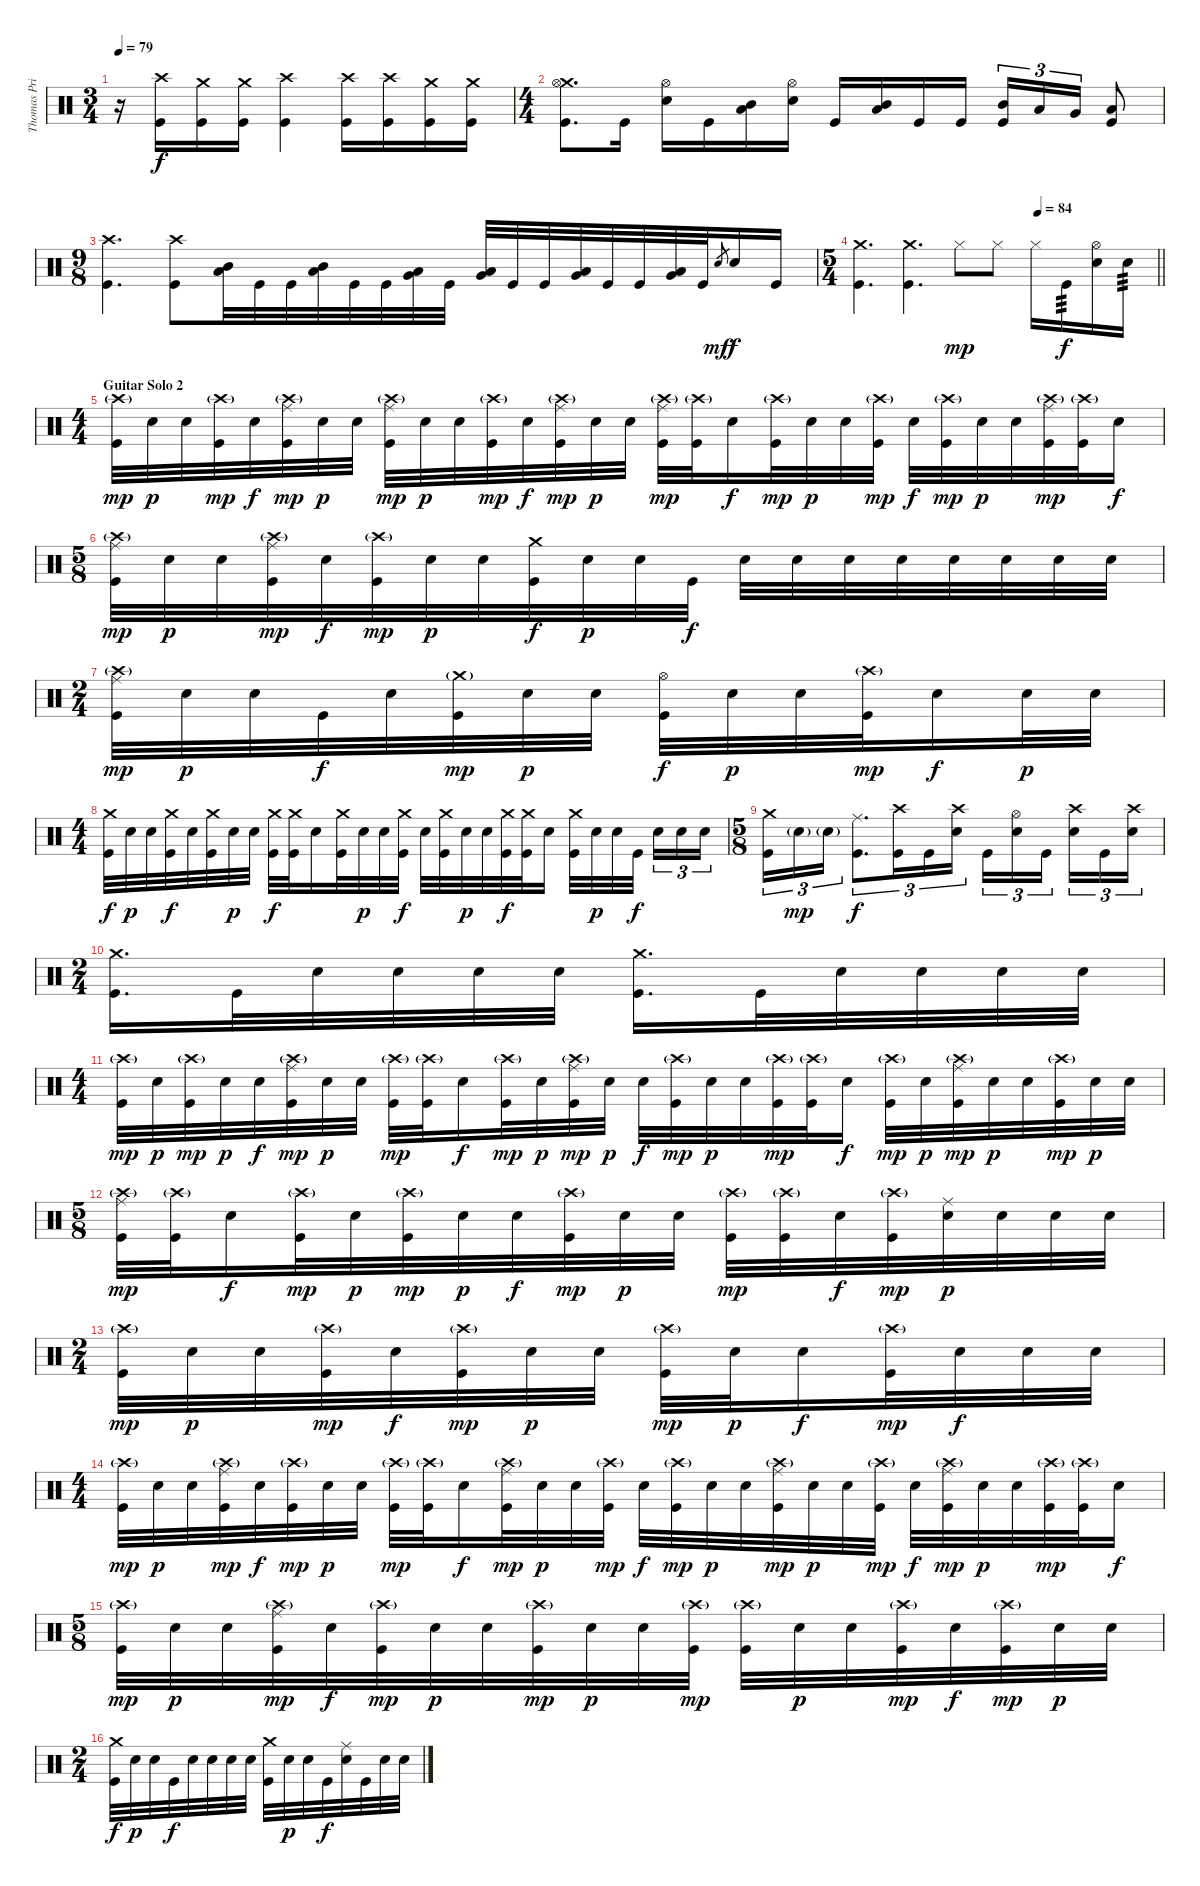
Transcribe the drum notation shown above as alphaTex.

\track ("Thomas Pridgen" "Thomas Pri") {instrument percussion}
\staff {score}
\articulation defaults
\ts (3 4)
\tempo 79
\clef neutral
\ks c
r.16{dy f} ("Crash high (hit)" "Kick (hit)").16 ("Crash medium (hit)" "Kick (hit)").16 ("Crash medium (hit)" "Kick (hit)").16 ("Crash high (hit)" "Kick (hit)").4 ("Crash high (hit)" "Kick (hit)").16 ("Crash high (hit)" "Kick (hit)").16 ("Crash medium (hit)" "Kick (hit)").16 ("Crash medium (hit)" "Kick (hit)").16 |
\ts (4 4)
("Crash medium (hit)" "Hi-Hat (open)" "Kick (hit)").8{d} "Kick (hit)".16 ("Hi-Hat (open)" "Snare (hit) 2").16 "Kick (hit)".16 ("Mid Tom (hit)" "Low Tom (hit)").16 ("Hi-Hat (open)" "Snare (hit) 2").16 "Kick (hit)".16 ("Mid Tom (hit)" "Low Tom (hit)").16 "Kick (hit)".16 "Kick (hit)".16 ("Mid Tom (hit)" "Kick (hit)").16{tu (3 2)} "Low Tom (hit)".16{tu (3 2)} "Very Low Tom (hit)".16{tu (3 2)} ("Low Floor Tom (hit)" "Kick (hit)").8 |
\ts (9 8)
("Crash high (hit)" "Kick (hit)").4{d} ("Crash high (hit)" "Kick (hit)").8 ("Mid Tom (hit)" "Low Tom (hit)").32 "Kick (hit)".32 "Kick (hit)".32 ("Mid Tom (hit)" "Low Tom (hit)").32 "Kick (hit)".32 "Kick (hit)".32 ("Low Tom (hit)" "Very Low Tom (hit)").32 "Kick (hit)".32 ("Low Tom (hit)" "Very Low Tom (hit)").32 "Kick (hit)".32 "Kick (hit)".32 ("Very Low Tom (hit)" "Low Floor Tom (hit)").32 "Kick (hit)".32 "Kick (hit)".32 ("Very Low Tom (hit)" "Low Floor Tom (hit)").32 "Kick (hit)".32 "Snare (hit) 2".8{gr dy mf} "Snare (hit) 2".16{dy f} "Kick (hit)".16 |
\ts (5 4)
\tempo (84 0.6)
\barLineRight lightlight
("Crash medium (hit)" "Kick (hit)").4{d} ("Crash medium (hit)" "Kick (hit)").4{d} "Hi-Hat (closed)".8{dy mp} "Hi-Hat (closed)".8 "Hi-Hat (closed)".16 "Kick (hit)".16{tp 3 dy f} ("Hi-Hat (open)" "Snare (hit) 2").16 "Snare (hit) 2".16{tp 3} |
\ts (4 4)
\section ("" "Guitar Solo 2")
("Crash high (hit)"{g} "Kick (hit)").32{dy mp} "Snare (hit) 2".32{dy p} "Snare (hit) 2".32 ("Crash high (hit)"{g} "Kick (hit)").32{dy mp} "Snare (hit) 2".32{dy f} ("Crash high (hit)"{g} "Ride (middle)" "Kick (hit)").32{dy mp} "Snare (hit) 2".32{dy p} "Snare (hit) 2".32 ("Crash high (hit)"{g} "Ride (middle)" "Kick (hit)").32{dy mp} "Snare (hit) 2".32{dy p} "Snare (hit) 2".32 ("Crash high (hit)"{g} "Kick (hit)").32{dy mp} "Snare (hit) 2".32{dy f} ("Crash high (hit)"{g} "Ride (middle)" "Kick (hit)").32{dy mp} "Snare (hit) 2".32{dy p} "Snare (hit) 2".32 ("Crash high (hit)"{g} "Ride (middle)" "Kick (hit)").32{dy mp} ("Crash high (hit)"{g} "Kick (hit)").32 "Snare (hit) 2".16{dy f} ("Crash high (hit)"{g} "Kick (hit)").32{dy mp} "Snare (hit) 2".32{dy p} "Snare (hit) 2".32 ("Crash high (hit)"{g} "Kick (hit)").32{dy mp} "Snare (hit) 2".32{dy f} ("Crash high (hit)"{g} "Kick (hit)").32{dy mp} "Snare (hit) 2".32{dy p} "Snare (hit) 2".32 ("Crash high (hit)"{g} "Ride (middle)" "Kick (hit)").32{dy mp} ("Crash high (hit)"{g} "Kick (hit)").32 "Snare (hit) 2".16{dy f} |
\ts (5 8)
("Crash high (hit)"{g} "Ride (middle)" "Kick (hit)").32{dy mp} "Snare (hit) 2".32{dy p} "Snare (hit) 2".32 ("Crash high (hit)"{g} "Ride (middle)" "Kick (hit)").32{dy mp} "Snare (hit) 2".32{dy f} ("Crash high (hit)"{g} "Kick (hit)").32{dy mp} "Snare (hit) 2".32{dy p} "Snare (hit) 2".32 ("Crash medium (hit)" "Kick (hit)").32{dy f} "Snare (hit) 2".32{dy p} "Snare (hit) 2".32 "Kick (hit)".32{dy f} "Snare (hit) 2".32 "Snare (hit) 2".32 "Snare (hit) 2".32 "Snare (hit) 2".32 "Snare (hit) 2".32 "Snare (hit) 2".32 "Snare (hit) 2".32 "Snare (hit) 2".32 |
\ts (2 4)
("Crash high (hit)"{g} "Ride (middle)" "Kick (hit)").32{dy mp} "Snare (hit) 2".32{dy p} "Snare (hit) 2".32 "Kick (hit)".32{dy f} "Snare (hit) 2".32 ("Crash medium (hit)"{g} "Kick (hit)").32{dy mp} "Snare (hit) 2".32{dy p} "Snare (hit) 2".32 ("Hi-Hat (open)" "Kick (hit)").32{dy f} "Snare (hit) 2".32{dy p} "Snare (hit) 2".32 ("Crash high (hit)"{g} "Kick (hit)").32{dy mp} "Snare (hit) 2".16{dy f} "Snare (hit) 2".32{dy p} "Snare (hit) 2".32 |
\ts (4 4)
("Crash medium (hit)" "Kick (hit)").32{dy f} "Snare (hit) 2".32{dy p} "Snare (hit) 2".32 ("Crash medium (hit)" "Kick (hit)").32{dy f} "Snare (hit) 2".32 ("Crash medium (hit)" "Kick (hit)").32 "Snare (hit) 2".32{dy p} "Snare (hit) 2".32 ("Crash medium (hit)" "Kick (hit)").32{dy f} ("Crash medium (hit)" "Kick (hit)").32 "Snare (hit) 2".16 ("Crash medium (hit)" "Kick (hit)").32 "Snare (hit) 2".32{dy p} "Snare (hit) 2".32 ("Crash medium (hit)" "Kick (hit)").32{dy f} "Snare (hit) 2".32 ("Crash medium (hit)" "Kick (hit)").32 "Snare (hit) 2".32{dy p} "Snare (hit) 2".32 ("Crash medium (hit)" "Kick (hit)").32{dy f} ("Crash medium (hit)" "Kick (hit)").32 "Snare (hit) 2".16 ("Crash medium (hit)" "Kick (hit)").32 "Snare (hit) 2".32{dy p} "Snare (hit) 2".32 "Kick (hit)".32{dy f beam splitsecondary} "Snare (hit) 2".16{tu (3 2)} "Snare (hit) 2".16{tu (3 2)} "Snare (hit) 2".16{tu (3 2)} |
\ts (5 8)
("Crash medium (hit)" "Kick (hit)").16{tu (3 2)} "Snare (hit) 2"{g}.16{tu (3 2) dy mp} "Snare (hit) 2"{g}.16{tu (3 2)} ("Ride (middle)" "Kick (hit)").8{d tu (3 2) dy f} ("Crash high (hit)" "Kick (hit)").16{tu (3 2)} "Kick (hit)".16{tu (3 2)} ("Crash high (hit)" "Snare (hit) 2").16{tu (3 2)} "Kick (hit)".16{tu (3 2)} ("Hi-Hat (open)" "Snare (hit) 2").16{tu (3 2)} "Kick (hit)".16{tu (3 2)} ("Crash high (hit)" "Snare (hit) 2").16{tu (3 2)} "Kick (hit)".16{tu (3 2)} ("Crash high (hit)" "Snare (hit) 2").16{tu (3 2)} |
\ts (2 4)
("Crash medium (hit)" "Kick (hit)").16{d} "Kick (hit)".32 "Snare (hit) 2".32 "Snare (hit) 2".32 "Snare (hit) 2".32 "Snare (hit) 2".32 ("Crash medium (hit)" "Kick (hit)").16{d} "Kick (hit)".32 "Snare (hit) 2".32 "Snare (hit) 2".32 "Snare (hit) 2".32 "Snare (hit) 2".32 |
\ts (4 4)
("Crash high (hit)"{g} "Kick (hit)").32{dy mp} "Snare (hit) 2".32{dy p} ("Crash high (hit)"{g} "Kick (hit)").32{dy mp} "Snare (hit) 2".32{dy p} "Snare (hit) 2".32{dy f} ("Crash high (hit)"{g} "Ride (middle)" "Kick (hit)").32{dy mp} "Snare (hit) 2".32{dy p} "Snare (hit) 2".32 ("Crash high (hit)"{g} "Kick (hit)").32{dy mp} ("Crash high (hit)"{g} "Kick (hit)").32 "Snare (hit) 2".16{dy f} ("Crash high (hit)"{g} "Kick (hit)").32{dy mp} "Snare (hit) 2".32{dy p} ("Crash high (hit)"{g} "Ride (middle)" "Kick (hit)").32{dy mp} "Snare (hit) 2".32{dy p} "Snare (hit) 2".32{dy f} ("Crash high (hit)"{g} "Kick (hit)").32{dy mp} "Snare (hit) 2".32{dy p} "Snare (hit) 2".32 ("Crash high (hit)"{g} "Kick (hit)").32{dy mp} ("Crash high (hit)"{g} "Kick (hit)").32 "Snare (hit) 2".16{dy f} ("Crash high (hit)"{g} "Kick (hit)").32{dy mp} "Snare (hit) 2".32{dy p} ("Crash high (hit)"{g} "Ride (middle)" "Kick (hit)").32{dy mp} "Snare (hit) 2".32{dy p} "Snare (hit) 2".32 ("Crash high (hit)"{g} "Kick (hit)").32{dy mp} "Snare (hit) 2".32{dy p} "Snare (hit) 2".32 |
\ts (5 8)
("Crash high (hit)"{g} "Ride (middle)" "Kick (hit)").32{dy mp} ("Crash high (hit)"{g} "Kick (hit)").32 "Snare (hit) 2".16{dy f} ("Crash high (hit)"{g} "Kick (hit)").32{dy mp} "Snare (hit) 2".32{dy p} ("Crash high (hit)"{g} "Kick (hit)").32{dy mp} "Snare (hit) 2".32{dy p} "Snare (hit) 2".32{dy f} ("Crash high (hit)"{g} "Kick (hit)").32{dy mp} "Snare (hit) 2".32{dy p} "Snare (hit) 2".32 ("Crash high (hit)"{g} "Kick (hit)").32{dy mp} ("Crash high (hit)"{g} "Kick (hit)").32 "Snare (hit) 2".32{dy f} ("Crash high (hit)"{g} "Kick (hit)").32{dy mp} ("Ride (middle)" "Snare (hit) 2").32{dy p} "Snare (hit) 2".32 "Snare (hit) 2".32 "Snare (hit) 2".32 |
\ts (2 4)
("Crash high (hit)"{g} "Kick (hit)").32{dy mp} "Snare (hit) 2".32{dy p} "Snare (hit) 2".32 ("Crash high (hit)"{g} "Kick (hit)").32{dy mp} "Snare (hit) 2".32{dy f} ("Crash high (hit)"{g} "Kick (hit)").32{dy mp} "Snare (hit) 2".32{dy p} "Snare (hit) 2".32 ("Crash high (hit)"{g} "Kick (hit)").32{dy mp} "Snare (hit) 2".32{dy p} "Snare (hit) 2".16{dy f} ("Crash high (hit)"{g} "Kick (hit)").32{dy mp} "Snare (hit) 2".32{dy f} "Snare (hit) 2".32 "Snare (hit) 2".32 |
\ts (4 4)
("Crash high (hit)"{g} "Kick (hit)").32{dy mp} "Snare (hit) 2".32{dy p} "Snare (hit) 2".32 ("Crash high (hit)"{g} "Ride (middle)" "Kick (hit)").32{dy mp} "Snare (hit) 2".32{dy f} ("Crash high (hit)"{g} "Kick (hit)").32{dy mp} "Snare (hit) 2".32{dy p} "Snare (hit) 2".32 ("Crash high (hit)"{g} "Kick (hit)").32{dy mp} ("Crash high (hit)"{g} "Kick (hit)").32 "Snare (hit) 2".16{dy f} ("Crash high (hit)"{g} "Ride (middle)" "Kick (hit)").32{dy mp} "Snare (hit) 2".32{dy p} "Snare (hit) 2".32 ("Crash high (hit)"{g} "Kick (hit)").32{dy mp} "Snare (hit) 2".32{dy f} ("Crash high (hit)"{g} "Kick (hit)").32{dy mp} "Snare (hit) 2".32{dy p} "Snare (hit) 2".32 ("Crash high (hit)"{g} "Ride (middle)" "Kick (hit)").32{dy mp} "Snare (hit) 2".32{dy p} "Snare (hit) 2".32 ("Crash high (hit)"{g} "Kick (hit)").32{dy mp} "Snare (hit) 2".32{dy f} ("Crash high (hit)"{g} "Ride (middle)" "Kick (hit)").32{dy mp} "Snare (hit) 2".32{dy p} "Snare (hit) 2".32 ("Crash high (hit)"{g} "Kick (hit)").32{dy mp} ("Crash high (hit)"{g} "Kick (hit)").32 "Snare (hit) 2".16{dy f} |
\ts (5 8)
("Crash high (hit)"{g} "Kick (hit)").32{dy mp} "Snare (hit) 2".32{dy p} "Snare (hit) 2".32 ("Crash high (hit)"{g} "Ride (middle)" "Kick (hit)").32{dy mp} "Snare (hit) 2".32{dy f} ("Crash high (hit)"{g} "Kick (hit)").32{dy mp} "Snare (hit) 2".32{dy p} "Snare (hit) 2".32 ("Crash high (hit)"{g} "Kick (hit)").32{dy mp} "Snare (hit) 2".32{dy p} "Snare (hit) 2".32 ("Crash high (hit)"{g} "Kick (hit)").32{dy mp} ("Crash high (hit)"{g} "Kick (hit)").32 "Snare (hit) 2".32{dy p} "Snare (hit) 2".32 ("Crash high (hit)"{g} "Kick (hit)").32{dy mp} "Snare (hit) 2".32{dy f} ("Crash high (hit)"{g} "Kick (hit)").32{dy mp} "Snare (hit) 2".32{dy p} "Snare (hit) 2".32 |
\ts (2 4)
("Crash medium (hit)" "Kick (hit)").32{dy f} "Snare (hit) 2".32{dy p} "Snare (hit) 2".32 "Kick (hit)".32{dy f} "Snare (hit) 2".32 "Snare (hit) 2".32 "Snare (hit) 2".32 "Snare (hit) 2".32 ("Crash medium (hit)" "Kick (hit)").32 "Snare (hit) 2".32{dy p} "Snare (hit) 2".32 "Kick (hit)".32{dy f} ("Ride (middle)" "Snare (hit) 2").32 "Kick (hit)".32 "Snare (hit) 2".32 "Snare (hit) 2".32
